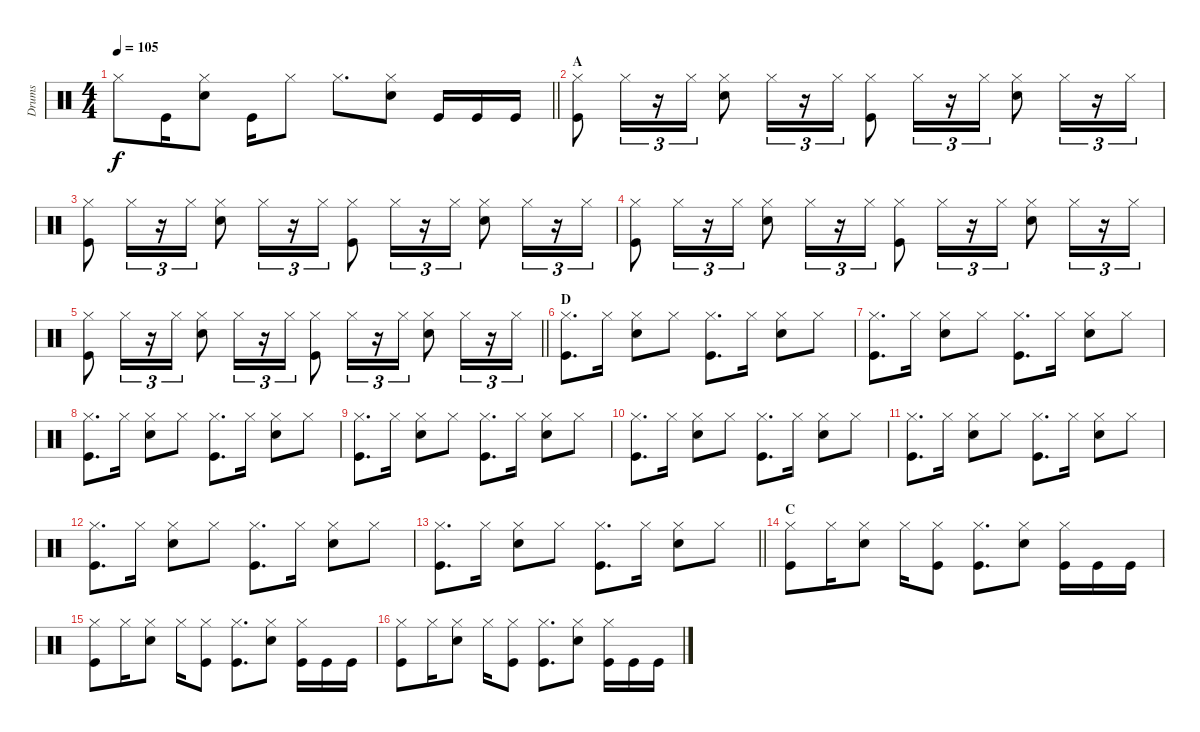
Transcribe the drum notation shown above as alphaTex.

\track ("Drums" "Drums") {instrument percussion}
\staff {score}
\articulation defaults
\ts (4 4)
\tempo 105
\clef neutral
\barLineRight lightlight
\ks c "Hi-Hat (closed)".8{dy f} "Kick (hit)".16
("Hi-Hat (closed)" "Electric Snare (hit)").8 "Kick (hit)".16 "Hi-Hat (closed)".8 "Hi-Hat (closed)".8{d} ("Hi-Hat (closed)" "Electric Snare (hit)").8 "Kick (hit)".16 "Kick (hit)".16 "Kick (hit)".16 |
\section ("" "A")
("Hi-Hat (closed)" "Kick (hit)").8 "Hi-Hat (closed)".16{tu (3 2)} r.16{tu (3 2)} "Hi-Hat (closed)".16{tu (3 2)} ("Hi-Hat (closed)" "Electric Snare (hit)").8 "Hi-Hat (closed)".16{tu (3 2)} r.16{tu (3 2)} "Hi-Hat (closed)".16{tu (3 2)} ("Hi-Hat (closed)" "Kick (hit)").8 "Hi-Hat (closed)".16{tu (3 2)} r.16{tu (3 2)} "Hi-Hat (closed)".16{tu (3 2)} ("Hi-Hat (closed)" "Electric Snare (hit)").8 "Hi-Hat (closed)".16{tu (3 2)} r.16{tu (3 2)} "Hi-Hat (closed)".16{tu (3 2)} |
("Hi-Hat (closed)" "Kick (hit)").8 "Hi-Hat (closed)".16{tu (3 2)} r.16{tu (3 2)} "Hi-Hat (closed)".16{tu (3 2)} ("Hi-Hat (closed)" "Electric Snare (hit)").8 "Hi-Hat (closed)".16{tu (3 2)} r.16{tu (3 2)} "Hi-Hat (closed)".16{tu (3 2)} ("Hi-Hat (closed)" "Kick (hit)").8 "Hi-Hat (closed)".16{tu (3 2)} r.16{tu (3 2)} "Hi-Hat (closed)".16{tu (3 2)} ("Hi-Hat (closed)" "Electric Snare (hit)").8 "Hi-Hat (closed)".16{tu (3 2)} r.16{tu (3 2)} "Hi-Hat (closed)".16{tu (3 2)} |
("Hi-Hat (closed)" "Kick (hit)").8 "Hi-Hat (closed)".16{tu (3 2)} r.16{tu (3 2)} "Hi-Hat (closed)".16{tu (3 2)} ("Hi-Hat (closed)" "Electric Snare (hit)").8 "Hi-Hat (closed)".16{tu (3 2)} r.16{tu (3 2)} "Hi-Hat (closed)".16{tu (3 2)} ("Hi-Hat (closed)" "Kick (hit)").8 "Hi-Hat (closed)".16{tu (3 2)} r.16{tu (3 2)} "Hi-Hat (closed)".16{tu (3 2)} ("Hi-Hat (closed)" "Electric Snare (hit)").8 "Hi-Hat (closed)".16{tu (3 2)} r.16{tu (3 2)} "Hi-Hat (closed)".16{tu (3 2)} |
\barLineRight lightlight
("Hi-Hat (closed)" "Kick (hit)").8 "Hi-Hat (closed)".16{tu (3 2)} r.16{tu (3 2)} "Hi-Hat (closed)".16{tu (3 2)} ("Hi-Hat (closed)" "Electric Snare (hit)").8 "Hi-Hat (closed)".16{tu (3 2)} r.16{tu (3 2)} "Hi-Hat (closed)".16{tu (3 2)} ("Hi-Hat (closed)" "Kick (hit)").8 "Hi-Hat (closed)".16{tu (3 2)} r.16{tu (3 2)} "Hi-Hat (closed)".16{tu (3 2)} ("Hi-Hat (closed)" "Electric Snare (hit)").8 "Hi-Hat (closed)".16{tu (3 2)} r.16{tu (3 2)} "Hi-Hat (closed)".16{tu (3 2)} |
\section ("" "D")
("Hi-Hat (closed)" "Kick (hit)").8{d} "Hi-Hat (closed)".16 ("Hi-Hat (closed)" "Electric Snare (hit)").8 "Hi-Hat (closed)".8 ("Hi-Hat (closed)" "Kick (hit)").8{d} "Hi-Hat (closed)".16 ("Hi-Hat (closed)" "Electric Snare (hit)").8 "Hi-Hat (closed)".8 |
("Hi-Hat (closed)" "Kick (hit)").8{d} "Hi-Hat (closed)".16 ("Hi-Hat (closed)" "Electric Snare (hit)").8 "Hi-Hat (closed)".8 ("Hi-Hat (closed)" "Kick (hit)").8{d} "Hi-Hat (closed)".16 ("Hi-Hat (closed)" "Electric Snare (hit)").8 "Hi-Hat (closed)".8 |
("Hi-Hat (closed)" "Kick (hit)").8{d} "Hi-Hat (closed)".16 ("Hi-Hat (closed)" "Electric Snare (hit)").8 "Hi-Hat (closed)".8 ("Hi-Hat (closed)" "Kick (hit)").8{d} "Hi-Hat (closed)".16 ("Hi-Hat (closed)" "Electric Snare (hit)").8 "Hi-Hat (closed)".8 |
("Hi-Hat (closed)" "Kick (hit)").8{d} "Hi-Hat (closed)".16 ("Hi-Hat (closed)" "Electric Snare (hit)").8 "Hi-Hat (closed)".8 ("Hi-Hat (closed)" "Kick (hit)").8{d} "Hi-Hat (closed)".16 ("Hi-Hat (closed)" "Electric Snare (hit)").8 "Hi-Hat (closed)".8 |
("Hi-Hat (closed)" "Kick (hit)").8{d} "Hi-Hat (closed)".16 ("Hi-Hat (closed)" "Electric Snare (hit)").8 "Hi-Hat (closed)".8 ("Hi-Hat (closed)" "Kick (hit)").8{d} "Hi-Hat (closed)".16 ("Hi-Hat (closed)" "Electric Snare (hit)").8 "Hi-Hat (closed)".8 |
("Hi-Hat (closed)" "Kick (hit)").8{d} "Hi-Hat (closed)".16 ("Hi-Hat (closed)" "Electric Snare (hit)").8 "Hi-Hat (closed)".8 ("Hi-Hat (closed)" "Kick (hit)").8{d} "Hi-Hat (closed)".16 ("Hi-Hat (closed)" "Electric Snare (hit)").8 "Hi-Hat (closed)".8 |
("Hi-Hat (closed)" "Kick (hit)").8{d} "Hi-Hat (closed)".16 ("Hi-Hat (closed)" "Electric Snare (hit)").8 "Hi-Hat (closed)".8 ("Hi-Hat (closed)" "Kick (hit)").8{d} "Hi-Hat (closed)".16 ("Hi-Hat (closed)" "Electric Snare (hit)").8 "Hi-Hat (closed)".8 |
\barLineRight lightlight
("Hi-Hat (closed)" "Kick (hit)").8{d} "Hi-Hat (closed)".16 ("Hi-Hat (closed)" "Electric Snare (hit)").8 "Hi-Hat (closed)".8 ("Hi-Hat (closed)" "Kick (hit)").8{d} "Hi-Hat (closed)".16 ("Hi-Hat (closed)" "Electric Snare (hit)").8 "Hi-Hat (closed)".8 |
\section ("" "C")
("Hi-Hat (closed)" "Kick (hit)").8 "Hi-Hat (closed)".16 ("Hi-Hat (closed)" "Electric Snare (hit)").8 "Hi-Hat (closed)".16 ("Hi-Hat (closed)" "Kick (hit)").8 ("Hi-Hat (closed)" "Kick (hit)").8{d} ("Hi-Hat (closed)" "Electric Snare (hit)").8 ("Hi-Hat (closed)" "Kick (hit)").16 "Kick (hit)".16 "Kick (hit)".16 |
("Hi-Hat (closed)" "Kick (hit)").8 "Hi-Hat (closed)".16 ("Hi-Hat (closed)" "Electric Snare (hit)").8 "Hi-Hat (closed)".16 ("Hi-Hat (closed)" "Kick (hit)").8 ("Hi-Hat (closed)" "Kick (hit)").8{d} ("Hi-Hat (closed)" "Electric Snare (hit)").8 ("Hi-Hat (closed)" "Kick (hit)").16 "Kick (hit)".16 "Kick (hit)".16 |
("Hi-Hat (closed)" "Kick (hit)").8 "Hi-Hat (closed)".16 ("Hi-Hat (closed)" "Electric Snare (hit)").8 "Hi-Hat (closed)".16 ("Hi-Hat (closed)" "Kick (hit)").8 ("Hi-Hat (closed)" "Kick (hit)").8{d} ("Hi-Hat (closed)" "Electric Snare (hit)").8 ("Hi-Hat (closed)" "Kick (hit)").16 "Kick (hit)".16 "Kick (hit)".16
